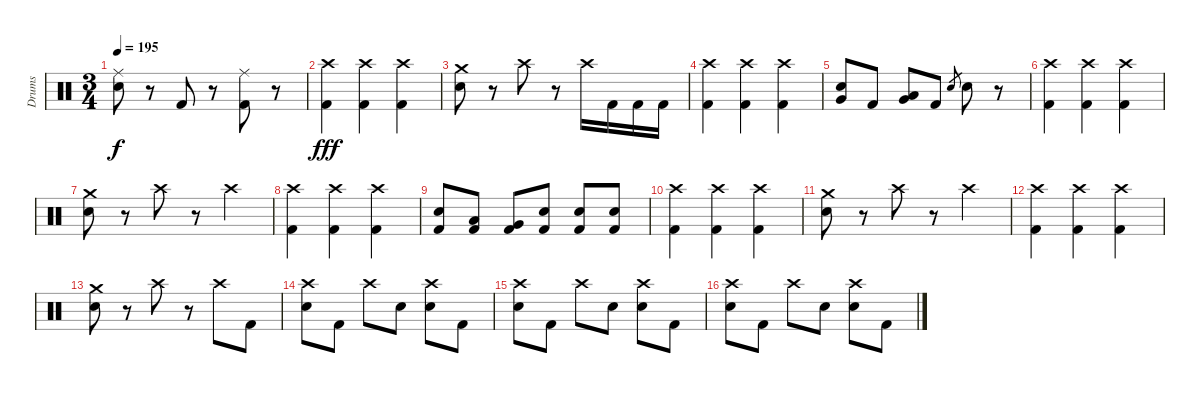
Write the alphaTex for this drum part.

\track ("Drums" "Drums") {instrument percussion}
\staff {score}
\articulation defaults
\ts (3 4)
\tempo 195
\clef neutral
\ks c
("Ride (middle)" "Electric Snare (hit)").8{dy f} r.8 "Kick (hit) 2".8 r.8 ("Ride (middle)" "Kick (hit) 2").8 r.8 |
("Crash high (hit)" "Kick (hit) 2").4{dy fff} ("Crash high (hit)" "Kick (hit) 2").4 ("Crash high (hit)" "Kick (hit) 2").4 |
("Crash medium (hit)" "Electric Snare (hit)").8 r.8 "Crash high (hit)".8 r.8 "Crash high (hit)".16 "Kick (hit) 2".16 "Kick (hit) 2".16 "Kick (hit) 2".16 |
("Crash high (hit)" "Kick (hit) 2").4 ("Crash high (hit)" "Kick (hit) 2").4 ("Crash high (hit)" "Kick (hit) 2").4 |
("Very Low Tom (hit)" "Electric Snare (hit)").8 "Kick (hit) 2".8 ("Low Floor Tom (hit)" "Very Low Tom (hit)").8 "Kick (hit) 2".8 "Electric Snare (hit)".8{gr} "Electric Snare (hit)".8 r.8 |
("Crash high (hit)" "Kick (hit) 2").4 ("Crash high (hit)" "Kick (hit) 2").4 ("Crash high (hit)" "Kick (hit) 2").4 |
("Crash medium (hit)" "Electric Snare (hit)").8 r.8 "Crash high (hit)".8 r.8 "Crash high (hit)".4 |
("Crash high (hit)" "Kick (hit) 2").4 ("Crash high (hit)" "Kick (hit) 2").4 ("Crash high (hit)" "Kick (hit) 2").4 |
("Electric Snare (hit)" "Kick (hit) 2").8 ("Low Tom (hit)" "Kick (hit) 2").8 ("Very Low Tom (hit)" "Kick (hit) 2").8 ("Electric Snare (hit)" "Kick (hit) 2").8 ("Electric Snare (hit)" "Kick (hit) 2").8 ("Electric Snare (hit)" "Kick (hit) 2").8 |
("Crash high (hit)" "Kick (hit) 2").4 ("Crash high (hit)" "Kick (hit) 2").4 ("Crash high (hit)" "Kick (hit) 2").4 |
("Crash medium (hit)" "Electric Snare (hit)").8 r.8 "Crash high (hit)".8 r.8 "Crash high (hit)".4 |
("Crash high (hit)" "Kick (hit) 2").4 ("Crash high (hit)" "Kick (hit) 2").4 ("Crash high (hit)" "Kick (hit) 2").4 |
("Crash medium (hit)" "Electric Snare (hit)").8 r.8 "Crash high (hit)".8 r.8 "Crash high (hit)".8 "Kick (hit) 2".8 |
("Crash high (hit)" "Electric Snare (hit)").8 "Kick (hit) 2".8 "Crash high (hit)".8 "Electric Snare (hit)".8 ("Crash high (hit)" "Electric Snare (hit)").8 "Kick (hit) 2".8 |
("Crash high (hit)" "Electric Snare (hit)").8 "Kick (hit) 2".8 "Crash high (hit)".8 "Electric Snare (hit)".8 ("Crash high (hit)" "Electric Snare (hit)").8 "Kick (hit) 2".8 |
("Crash high (hit)" "Electric Snare (hit)").8 "Kick (hit) 2".8 "Crash high (hit)".8 "Electric Snare (hit)".8 ("Crash high (hit)" "Electric Snare (hit)").8 "Kick (hit) 2".8
